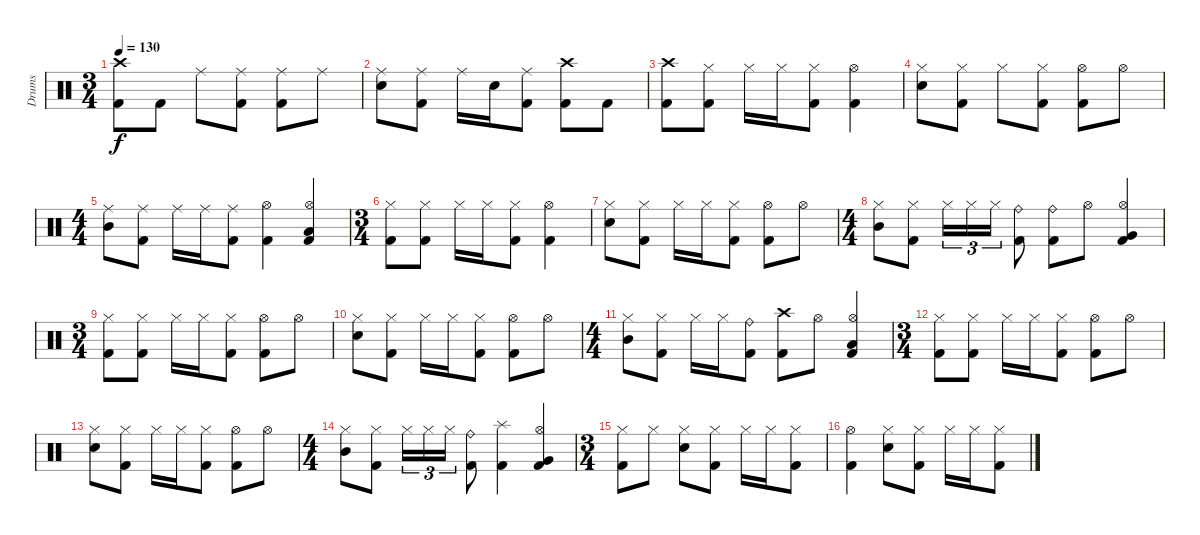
\track ("Drums" "Drums") {instrument percussion}
\staff {score}
\articulation defaults
\ts (3 4)
\tempo 130
\clef neutral
\ks c
("Crash high (hit)" "Kick (hit) 2").8{dy f} "Kick (hit) 2".8 "Ride (middle)".8 ("Ride (middle)" "Kick (hit) 2").8 ("Ride (middle)" "Kick (hit) 2").8 "Ride (middle)".8 |
("Ride (middle)" "Snare (hit) 2").8 ("Ride (middle)" "Kick (hit) 2").8 "Ride (middle)".16 "Snare (hit) 2".16 ("Ride (middle)" "Kick (hit) 2").8 ("Crash high (hit)" "Kick (hit) 2").8 "Kick (hit) 2".8 |
("Crash high (hit)" "Kick (hit) 2").8 ("Hi-Hat (closed)" "Kick (hit) 2").8 "Hi-Hat (closed)".16 "Hi-Hat (closed)".16 ("Hi-Hat (closed)" "Kick (hit) 2").8 ("Hi-Hat (open)" "Kick (hit) 2").4 |
("Hi-Hat (closed)" "Snare (hit) 2").8 ("Hi-Hat (closed)" "Kick (hit) 2").8 "Hi-Hat (closed)".8 ("Hi-Hat (closed)" "Kick (hit) 2").8 ("Hi-Hat (open)" "Kick (hit) 2").8 "Hi-Hat (open)".8 |
\ts (4 4)
("Ride (middle)" "Mid Tom (hit)").8 ("Ride (middle)" "Kick (hit) 2").8 "Ride (middle)".16 "Ride (middle)".16 ("Ride (middle)" "Kick (hit) 2").8 ("Hi-Hat (open)" "Kick (hit) 2").4 ("Hi-Hat (open)" "Low Floor Tom (hit)" "Kick (hit) 2").4 |
\ts (3 4)
("Hi-Hat (closed)" "Kick (hit) 2").8 ("Hi-Hat (closed)" "Kick (hit) 2").8 "Hi-Hat (closed)".16 "Hi-Hat (closed)".16 ("Hi-Hat (closed)" "Kick (hit) 2").8 ("Hi-Hat (open)" "Kick (hit) 2").4 |
("Hi-Hat (closed)" "Snare (hit) 2").8 ("Hi-Hat (closed)" "Kick (hit) 2").8 "Hi-Hat (closed)".16 "Hi-Hat (closed)".16 ("Hi-Hat (closed)" "Kick (hit) 2").8 ("Hi-Hat (open)" "Kick (hit) 2").8 "Hi-Hat (open)".8 |
\ts (4 4)
("Hi-Hat (closed)" "Mid Tom (hit)").8 ("Hi-Hat (closed)" "Kick (hit) 2").8 "Hi-Hat (closed)".16{tu (3 2)} "Hi-Hat (closed)".16{tu (3 2)} "Hi-Hat (closed)".16{tu (3 2)} ("Ride (bell)" "Kick (hit) 2").8 ("Ride (bell)" "Kick (hit) 2").8 "Hi-Hat (open)".8 ("Hi-Hat (open)" "Very Low Tom (hit)" "Kick (hit) 2").4 |
\ts (3 4)
("Hi-Hat (closed)" "Kick (hit) 2").8 ("Hi-Hat (closed)" "Kick (hit) 2").8 "Hi-Hat (closed)".16 "Hi-Hat (closed)".16 ("Hi-Hat (closed)" "Kick (hit) 2").8 ("Hi-Hat (open)" "Kick (hit) 2").8 "Hi-Hat (open)".8 |
("Hi-Hat (closed)" "Snare (hit) 2").8 ("Hi-Hat (closed)" "Kick (hit) 2").8 "Hi-Hat (closed)".16 "Hi-Hat (closed)".16 ("Hi-Hat (closed)" "Kick (hit) 2").8 ("Hi-Hat (open)" "Kick (hit) 2").8 "Hi-Hat (open)".8 |
\ts (4 4)
("Hi-Hat (closed)" "Mid Tom (hit)").8 ("Hi-Hat (closed)" "Kick (hit) 2").8 "Hi-Hat (closed)".16 "Hi-Hat (closed)".16 ("Ride (bell)" "Kick (hit) 2").8 ("Crash high (hit)" "Kick (hit) 2").8 "Hi-Hat (open)".8 ("Hi-Hat (open)" "Low Floor Tom (hit)" "Kick (hit) 2").4 |
\ts (3 4)
("Hi-Hat (closed)" "Kick (hit) 2").8 ("Hi-Hat (closed)" "Kick (hit) 2").8 "Hi-Hat (closed)".16 "Hi-Hat (closed)".16 ("Hi-Hat (closed)" "Kick (hit) 2").8 ("Hi-Hat (open)" "Kick (hit) 2").8 "Hi-Hat (open)".8 |
("Hi-Hat (closed)" "Snare (hit) 2").8 ("Hi-Hat (closed)" "Kick (hit) 2").8 "Hi-Hat (closed)".16 "Hi-Hat (closed)".16 ("Hi-Hat (closed)" "Kick (hit) 2").8 ("Hi-Hat (open)" "Kick (hit) 2").8 "Hi-Hat (open)".8 |
\ts (4 4)
("Hi-Hat (closed)" "Mid Tom (hit)").8 ("Hi-Hat (closed)" "Kick (hit) 2").8 "Hi-Hat (closed)".16{tu (3 2)} "Hi-Hat (closed)".16{tu (3 2)} "Hi-Hat (closed)".16{tu (3 2)} ("Ride (bell)" "Kick (hit) 2").8 ("Splash (hit)" "Kick (hit) 2").4 ("Hi-Hat (open)" "Very Low Tom (hit)" "Kick (hit) 2").4 |
\ts (3 4)
("Hi-Hat (closed)" "Kick (hit) 2").8 "Hi-Hat (closed)".8 ("Hi-Hat (closed)" "Snare (hit) 2").8 ("Hi-Hat (closed)" "Kick (hit) 2").8 "Hi-Hat (closed)".16 "Hi-Hat (closed)".16 ("Hi-Hat (closed)" "Kick (hit) 2").8 |
("Hi-Hat (open)" "Kick (hit) 2").4 ("Hi-Hat (closed)" "Snare (hit) 2").8 ("Hi-Hat (closed)" "Kick (hit) 2").8 "Hi-Hat (closed)".16 "Hi-Hat (closed)".16 ("Hi-Hat (closed)" "Kick (hit) 2").8
